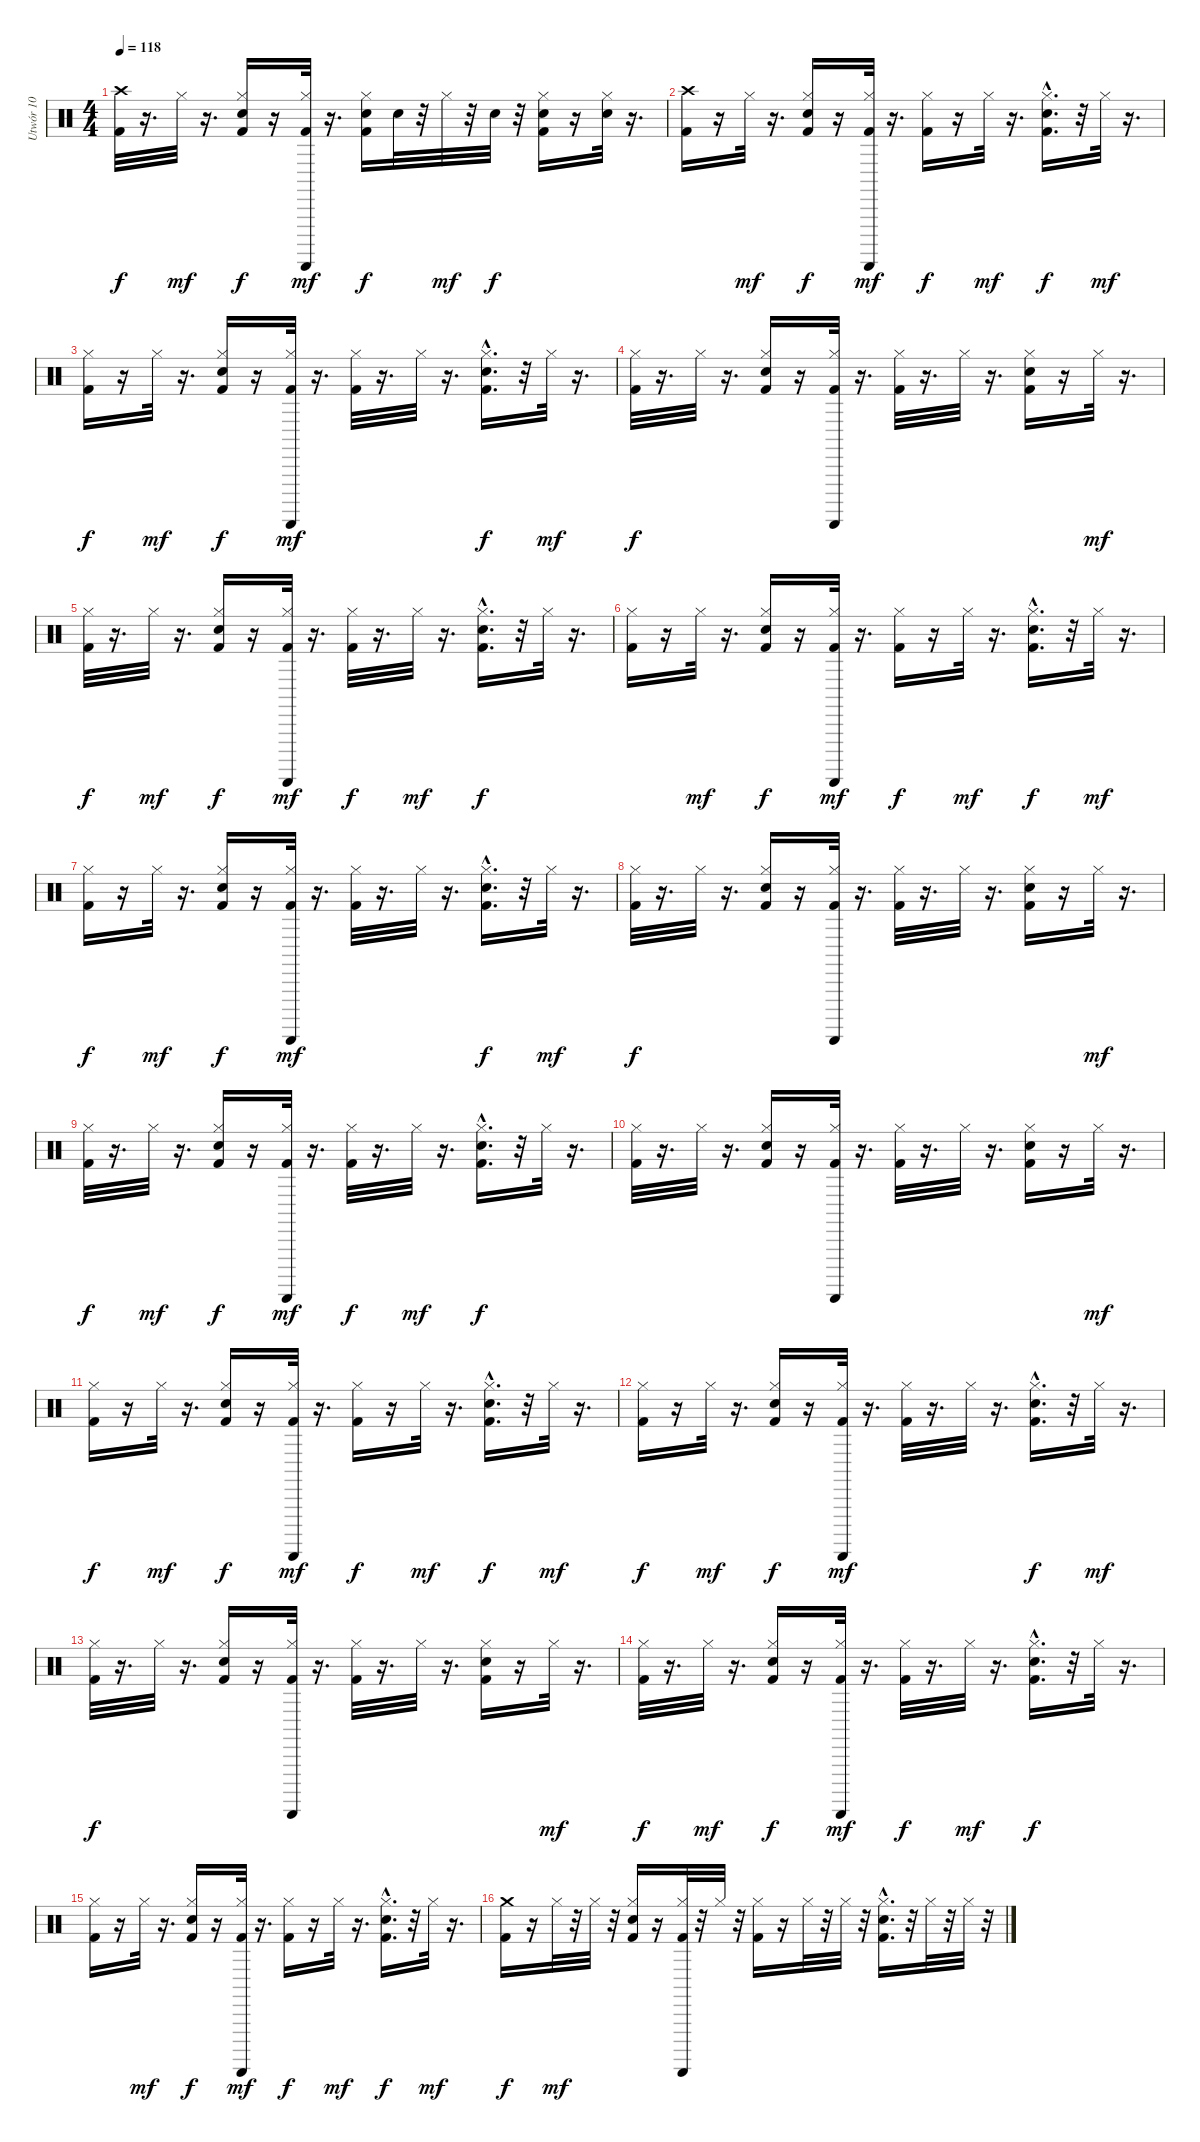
\track ("Utwór 10" "Utwór 10") {instrument percussion}
\staff {score}
\articulation defaults
\ts (4 4)
\tempo 118
\clef neutral
\ks c
("Kick (hit) 2" "Crash high (hit)").32{dy f} r.16{d} "Hi-Hat (closed)".32{dy mf} r.16{d} ("Kick (hit) 2" "Snare (hit) 2" "Hi-Hat (closed)").16{dy f} r.16 ("Kick (hit) 2" "Hi-Hat (closed)" "Guiro (scrap-return)").32{dy mf} r.16{d} ("Kick (hit) 2" "Snare (hit) 2" "Hi-Hat (closed)").16{dy f} "Snare (hit) 2".32 r.32 "Hi-Hat (closed)".32{dy mf} r.32 "Snare (hit) 2".32{dy f} r.32 ("Kick (hit) 2" "Snare (hit) 2" "Hi-Hat (closed)").16 r.16 ("Snare (hit) 2" "Hi-Hat (closed)").32 r.16{d} |
("Kick (hit) 2" "Crash high (hit)").16 r.16 "Hi-Hat (closed)".32{dy mf} r.16{d} ("Kick (hit) 2" "Snare (hit) 2" "Hi-Hat (closed)").16{dy f} r.16 ("Kick (hit) 2" "Hi-Hat (closed)" "Guiro (scrap-return)").32{dy mf} r.16{d} ("Kick (hit) 2" "Hi-Hat (closed)").16{dy f} r.16 "Hi-Hat (closed)".32{dy mf} r.16{d} ("Kick (hit) 2" "Snare (hit) 2"{hac} "Hi-Hat (closed)").16{d dy f} r.32 "Hi-Hat (closed)".32{dy mf} r.16{d} |
("Kick (hit) 2" "Hi-Hat (closed)").16{dy f} r.16 "Hi-Hat (closed)".32{dy mf} r.16{d} ("Kick (hit) 2" "Snare (hit) 2" "Hi-Hat (closed)").16{dy f} r.16 ("Kick (hit) 2" "Hi-Hat (closed)" "Guiro (scrap-return)").32{dy mf} r.16{d} ("Kick (hit) 2" "Hi-Hat (closed)").32 r.16{d} "Hi-Hat (closed)".32 r.16{d} ("Kick (hit) 2" "Snare (hit) 2"{hac} "Hi-Hat (closed)").16{d dy f} r.32 "Hi-Hat (closed)".32{dy mf} r.16{d} |
("Kick (hit) 2" "Hi-Hat (closed)").32{dy f} r.16{d} "Hi-Hat (closed)".32 r.16{d} ("Kick (hit) 2" "Snare (hit) 2" "Hi-Hat (closed)").16 r.16 ("Kick (hit) 2" "Hi-Hat (closed)" "Guiro (scrap-return)").32 r.16{d} ("Kick (hit) 2" "Hi-Hat (closed)").32 r.16{d} "Hi-Hat (closed)".32 r.16{d} ("Kick (hit) 2" "Snare (hit) 2" "Hi-Hat (closed)").16 r.16 "Hi-Hat (closed)".32{dy mf} r.16{d} |
("Kick (hit) 2" "Hi-Hat (closed)").32{dy f} r.16{d} "Hi-Hat (closed)".32{dy mf} r.16{d} ("Kick (hit) 2" "Snare (hit) 2" "Hi-Hat (closed)").16{dy f} r.16 ("Kick (hit) 2" "Hi-Hat (closed)" "Guiro (scrap-return)").32{dy mf} r.16{d} ("Kick (hit) 2" "Hi-Hat (closed)").32{dy f} r.16{d} "Hi-Hat (closed)".32{dy mf} r.16{d} ("Kick (hit) 2" "Snare (hit) 2"{hac} "Hi-Hat (closed)").16{d dy f} r.32 "Hi-Hat (closed)".32 r.16{d} |
("Kick (hit) 2" "Hi-Hat (closed)").16 r.16 "Hi-Hat (closed)".32{dy mf} r.16{d} ("Kick (hit) 2" "Snare (hit) 2" "Hi-Hat (closed)").16{dy f} r.16 ("Kick (hit) 2" "Hi-Hat (closed)" "Guiro (scrap-return)").32{dy mf} r.16{d} ("Kick (hit) 2" "Hi-Hat (closed)").16{dy f} r.16 "Hi-Hat (closed)".32{dy mf} r.16{d} ("Kick (hit) 2" "Snare (hit) 2"{hac} "Hi-Hat (closed)").16{d dy f} r.32 "Hi-Hat (closed)".32{dy mf} r.16{d} |
("Kick (hit) 2" "Hi-Hat (closed)").16{dy f} r.16 "Hi-Hat (closed)".32{dy mf} r.16{d} ("Kick (hit) 2" "Snare (hit) 2" "Hi-Hat (closed)").16{dy f} r.16 ("Kick (hit) 2" "Hi-Hat (closed)" "Guiro (scrap-return)").32{dy mf} r.16{d} ("Kick (hit) 2" "Hi-Hat (closed)").32 r.16{d} "Hi-Hat (closed)".32 r.16{d} ("Kick (hit) 2" "Snare (hit) 2"{hac} "Hi-Hat (closed)").16{d dy f} r.32 "Hi-Hat (closed)".32{dy mf} r.16{d} |
("Kick (hit) 2" "Hi-Hat (closed)").32{dy f} r.16{d} "Hi-Hat (closed)".32 r.16{d} ("Kick (hit) 2" "Snare (hit) 2" "Hi-Hat (closed)").16 r.16 ("Kick (hit) 2" "Hi-Hat (closed)" "Guiro (scrap-return)").32 r.16{d} ("Kick (hit) 2" "Hi-Hat (closed)").32 r.16{d} "Hi-Hat (closed)".32 r.16{d} ("Kick (hit) 2" "Snare (hit) 2" "Hi-Hat (closed)").16 r.16 "Hi-Hat (closed)".32{dy mf} r.16{d} |
("Kick (hit) 2" "Hi-Hat (closed)").32{dy f} r.16{d} "Hi-Hat (closed)".32{dy mf} r.16{d} ("Kick (hit) 2" "Snare (hit) 2" "Hi-Hat (closed)").16{dy f} r.16 ("Kick (hit) 2" "Hi-Hat (closed)" "Guiro (scrap-return)").32{dy mf} r.16{d} ("Kick (hit) 2" "Hi-Hat (closed)").32{dy f} r.16{d} "Hi-Hat (closed)".32{dy mf} r.16{d} ("Kick (hit) 2" "Snare (hit) 2"{hac} "Hi-Hat (closed)").16{d dy f} r.32 "Hi-Hat (closed)".32 r.16{d} |
("Kick (hit) 2" "Hi-Hat (closed)").32 r.16{d} "Hi-Hat (closed)".32 r.16{d} ("Kick (hit) 2" "Snare (hit) 2" "Hi-Hat (closed)").16 r.16 ("Kick (hit) 2" "Hi-Hat (closed)" "Guiro (scrap-return)").32 r.16{d} ("Kick (hit) 2" "Hi-Hat (closed)").32 r.16{d} "Hi-Hat (closed)".32 r.16{d} ("Kick (hit) 2" "Snare (hit) 2" "Hi-Hat (closed)").16 r.16 "Hi-Hat (closed)".32{dy mf} r.16{d} |
("Kick (hit) 2" "Hi-Hat (closed)").16{dy f} r.16 "Hi-Hat (closed)".32{dy mf} r.16{d} ("Kick (hit) 2" "Snare (hit) 2" "Hi-Hat (closed)").16{dy f} r.16 ("Kick (hit) 2" "Hi-Hat (closed)" "Guiro (scrap-return)").32{dy mf} r.16{d} ("Kick (hit) 2" "Hi-Hat (closed)").16{dy f} r.16 "Hi-Hat (closed)".32{dy mf} r.16{d} ("Kick (hit) 2" "Snare (hit) 2"{hac} "Hi-Hat (closed)").16{d dy f} r.32 "Hi-Hat (closed)".32{dy mf} r.16{d} |
("Kick (hit) 2" "Hi-Hat (closed)").16{dy f} r.16 "Hi-Hat (closed)".32{dy mf} r.16{d} ("Kick (hit) 2" "Snare (hit) 2" "Hi-Hat (closed)").16{dy f} r.16 ("Kick (hit) 2" "Hi-Hat (closed)" "Guiro (scrap-return)").32{dy mf} r.16{d} ("Kick (hit) 2" "Hi-Hat (closed)").32 r.16{d} "Hi-Hat (closed)".32 r.16{d} ("Kick (hit) 2" "Snare (hit) 2"{hac} "Hi-Hat (closed)").16{d dy f} r.32 "Hi-Hat (closed)".32{dy mf} r.16{d} |
("Kick (hit) 2" "Hi-Hat (closed)").32{dy f} r.16{d} "Hi-Hat (closed)".32 r.16{d} ("Kick (hit) 2" "Snare (hit) 2" "Hi-Hat (closed)").16 r.16 ("Kick (hit) 2" "Hi-Hat (closed)" "Guiro (scrap-return)").32 r.16{d} ("Kick (hit) 2" "Hi-Hat (closed)").32 r.16{d} "Hi-Hat (closed)".32 r.16{d} ("Kick (hit) 2" "Snare (hit) 2" "Hi-Hat (closed)").16 r.16 "Hi-Hat (closed)".32{dy mf} r.16{d} |
("Kick (hit) 2" "Hi-Hat (closed)").32{dy f} r.16{d} "Hi-Hat (closed)".32{dy mf} r.16{d} ("Kick (hit) 2" "Snare (hit) 2" "Hi-Hat (closed)").16{dy f} r.16 ("Kick (hit) 2" "Hi-Hat (closed)" "Guiro (scrap-return)").32{dy mf} r.16{d} ("Kick (hit) 2" "Hi-Hat (closed)").32{dy f} r.16{d} "Hi-Hat (closed)".32{dy mf} r.16{d} ("Kick (hit) 2" "Snare (hit) 2"{hac} "Hi-Hat (closed)").16{d dy f} r.32 "Hi-Hat (closed)".32 r.16{d} |
("Kick (hit) 2" "Hi-Hat (closed)").16 r.16 "Hi-Hat (closed)".32{dy mf} r.16{d} ("Kick (hit) 2" "Snare (hit) 2" "Hi-Hat (closed)").16{dy f} r.16 ("Kick (hit) 2" "Hi-Hat (closed)" "Guiro (scrap-return)").32{dy mf} r.16{d} ("Kick (hit) 2" "Hi-Hat (closed)").16{dy f} r.16 "Hi-Hat (closed)".32{dy mf} r.16{d} ("Kick (hit) 2" "Snare (hit) 2"{hac} "Hi-Hat (closed)").16{d dy f} r.32 "Hi-Hat (closed)".32{dy mf} r.16{d} |
("Kick (hit) 2" "Crash medium (hit)").16{dy f} r.16 "Hi-Hat (closed)".32{dy mf} r.32 "Hi-Hat (closed)".32 r.32 ("Kick (hit) 2" "Snare (hit) 2" "Hi-Hat (closed)").16 r.16 ("Kick (hit) 2" "Hi-Hat (closed)" "Guiro (scrap-return)").32 r.32 "Hi-Hat (closed)".32 r.32 ("Kick (hit) 2" "Hi-Hat (closed)").16 r.16 "Hi-Hat (closed)".32 r.32 "Hi-Hat (closed)".32 r.32 ("Kick (hit) 2" "Snare (hit) 2"{hac} "Hi-Hat (closed)").16{d} r.32 "Hi-Hat (closed)".32 r.32 "Hi-Hat (closed)".32 r.32
